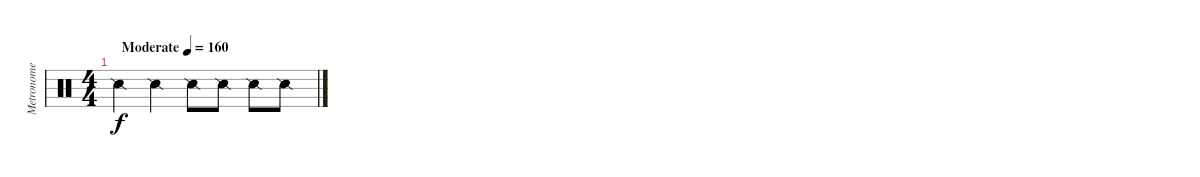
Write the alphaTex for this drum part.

\track ("Metronome" "Metronome") {instrument percussion}
\staff {score}
\articulation defaults
\ts (4 4)
\tempo (160 "Moderate")
\clef neutral
\ks c "Snare (side stick) 2".4{dy f} "Snare (side stick) 2".4 "Snare (side stick) 2".8 "Snare (side stick) 2".8 "Snare (side stick) 2".8 "Snare (side stick) 2".8
